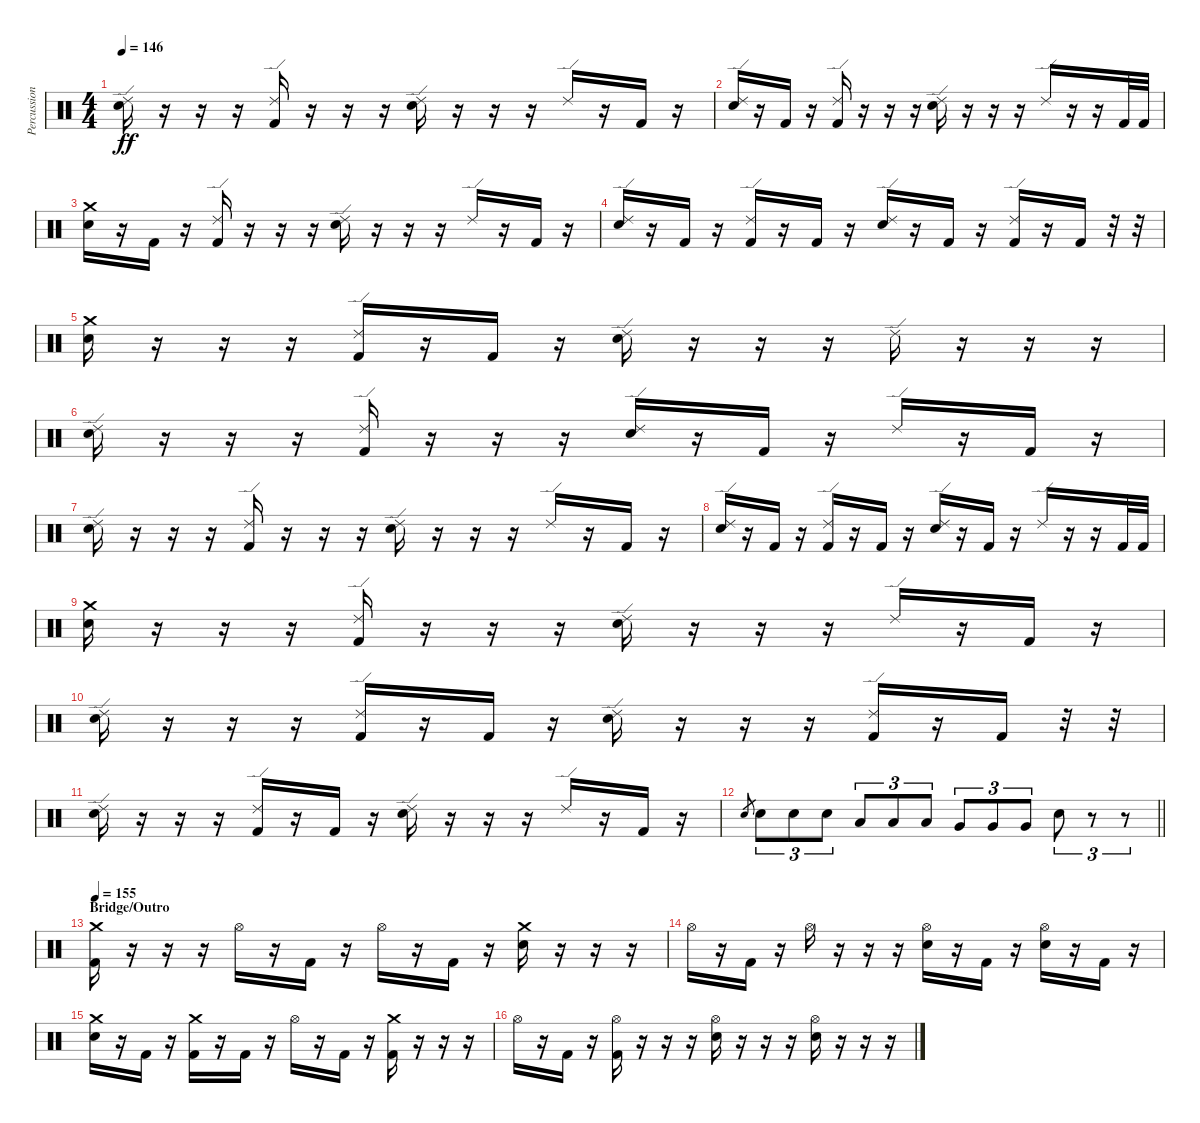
\track ("Percussion" "Percussion") {instrument percussion}
\staff {score}
\articulation defaults
\ts (4 4)
\tempo 146
\clef neutral
\ks c
("Ride (edge) 2" "Electric Snare (hit)").16{dy ff} r.16 r.16 r.16 ("Ride (edge) 2" "Kick (hit) 2").16 r.16 r.16 r.16 ("Ride (edge) 2" "Electric Snare (hit)").16 r.16 r.16 r.16 "Ride (edge) 2".16 r.16 "Kick (hit) 2".16 r.16 |
("Ride (edge) 2" "Electric Snare (hit)").16 r.16 "Kick (hit) 2".16 r.16 ("Ride (edge) 2" "Kick (hit) 2").16 r.16 r.16 r.16 ("Ride (edge) 2" "Electric Snare (hit)").16 r.16 r.16 r.16 "Ride (edge) 2".16 r.16 r.16 "Kick (hit) 2".32 "Kick (hit) 2".32 |
("Crash medium (hit)" "Electric Snare (hit)").16 r.16 "Kick (hit) 2".16 r.16 ("Ride (edge) 2" "Kick (hit) 2").16 r.16 r.16 r.16 ("Ride (edge) 2" "Electric Snare (hit)").16 r.16 r.16 r.16 "Ride (edge) 2".16 r.16 "Kick (hit) 2".16 r.16 |
("Ride (edge) 2" "Electric Snare (hit)").16 r.16 "Kick (hit) 2".16 r.16 ("Ride (edge) 2" "Kick (hit) 2").16 r.16 "Kick (hit) 2".16 r.16 ("Ride (edge) 2" "Electric Snare (hit)").16 r.16 "Kick (hit) 2".16 r.16 ("Ride (edge) 2" "Kick (hit) 2").16 r.16 "Kick (hit) 2".16 r.32 r.32 |
("Crash medium (hit)" "Electric Snare (hit)").16 r.16 r.16 r.16 ("Ride (edge) 2" "Kick (hit) 2").16 r.16 "Kick (hit) 2".16 r.16 ("Ride (edge) 2" "Electric Snare (hit)").16 r.16 r.16 r.16 "Ride (edge) 2".16 r.16 r.16 r.16 |
("Ride (edge) 2" "Electric Snare (hit)").16 r.16 r.16 r.16 ("Ride (edge) 2" "Kick (hit) 2").16 r.16 r.16 r.16 ("Ride (edge) 2" "Electric Snare (hit)").16 r.16 "Kick (hit) 2".16 r.16 "Ride (edge) 2".16 r.16 "Kick (hit) 2".16 r.16 |
("Ride (edge) 2" "Electric Snare (hit)").16 r.16 r.16 r.16 ("Ride (edge) 2" "Kick (hit) 2").16 r.16 r.16 r.16 ("Ride (edge) 2" "Electric Snare (hit)").16 r.16 r.16 r.16 "Ride (edge) 2".16 r.16 "Kick (hit) 2".16 r.16 |
("Ride (edge) 2" "Electric Snare (hit)").16 r.16 "Kick (hit) 2".16 r.16 ("Ride (edge) 2" "Kick (hit) 2").16 r.16 "Kick (hit) 2".16 r.16 ("Ride (edge) 2" "Electric Snare (hit)").16 r.16 "Kick (hit) 2".16 r.16 "Ride (edge) 2".16 r.16 r.16 "Kick (hit) 2".32 "Kick (hit) 2".32 |
("Crash medium (hit)" "Electric Snare (hit)").16 r.16 r.16 r.16 ("Ride (edge) 2" "Kick (hit) 2").16 r.16 r.16 r.16 ("Ride (edge) 2" "Electric Snare (hit)").16 r.16 r.16 r.16 "Ride (edge) 2".16 r.16 "Kick (hit) 2".16 r.16 |
("Ride (edge) 2" "Electric Snare (hit)").16 r.16 r.16 r.16 ("Ride (edge) 2" "Kick (hit) 2").16 r.16 "Kick (hit) 2".16 r.16 ("Ride (edge) 2" "Electric Snare (hit)").16 r.16 r.16 r.16 ("Ride (edge) 2" "Kick (hit) 2").16 r.16 "Kick (hit) 2".16 r.32 r.32 |
("Ride (edge) 2" "Electric Snare (hit)").16 r.16 r.16 r.16 ("Ride (edge) 2" "Kick (hit) 2").16 r.16 "Kick (hit) 2".16 r.16 ("Ride (edge) 2" "Electric Snare (hit)").16 r.16 r.16 r.16 "Ride (edge) 2".16 r.16 "Kick (hit) 2".16 r.16 |
\barLineRight lightlight "Electric Snare (hit)".8{gr} "Electric Snare (hit)".8{tu (3 2)} "Electric Snare (hit)".8{tu (3 2)} "Electric Snare (hit)".8{tu (3 2)} "Low Tom (hit)".8{tu (3 2)} "Low Tom (hit)".8{tu (3 2)} "Low Tom (hit)".8{tu (3 2)} "Very Low Tom (hit)".8{tu (3 2)} "Very Low Tom (hit)".8{tu (3 2)} "Very Low Tom (hit)".8{tu (3 2)} "Electric Snare (hit)".8{tu (3 2)}
r.8{tu (3 2)} r.8{tu (3 2)} |
\section ("" "Bridge/Outro")
\tempo 155
("Crash medium (hit)" "Kick (hit) 2").16 r.16 r.16 r.16 "Hi-Hat (open)".16 r.16 "Kick (hit) 2".16 r.16 "Hi-Hat (open)".16 r.16 "Kick (hit) 2".16 r.16 ("Crash medium (hit)" "Electric Snare (hit)").16 r.16 r.16 r.16 |
"Hi-Hat (open)".16 r.16 "Kick (hit) 2".16 r.16 "Hi-Hat (open)".16 r.16 r.16 r.16 ("Hi-Hat (open)" "Electric Snare (hit)").16 r.16 "Kick (hit) 2".16 r.16 ("Hi-Hat (open)" "Electric Snare (hit)").16 r.16 "Kick (hit) 2".16 r.16 |
("Crash medium (hit)" "Electric Snare (hit)").16 r.16 "Kick (hit) 2".16 r.16 ("Crash medium (hit)" "Kick (hit) 2").16 r.16 "Kick (hit) 2".16 r.16 "Hi-Hat (open)".16 r.16 "Kick (hit) 2".16 r.16 ("Crash medium (hit)" "Kick (hit) 2").16 r.16 r.16 r.16 |
"Hi-Hat (open)".16 r.16 "Kick (hit) 2".16 r.16 ("Hi-Hat (open)" "Kick (hit) 2").16 r.16 r.16 r.16 ("Hi-Hat (open)" "Electric Snare (hit)").16 r.16 r.16 r.16 ("Hi-Hat (open)" "Electric Snare (hit)").16 r.16 r.16 r.16
